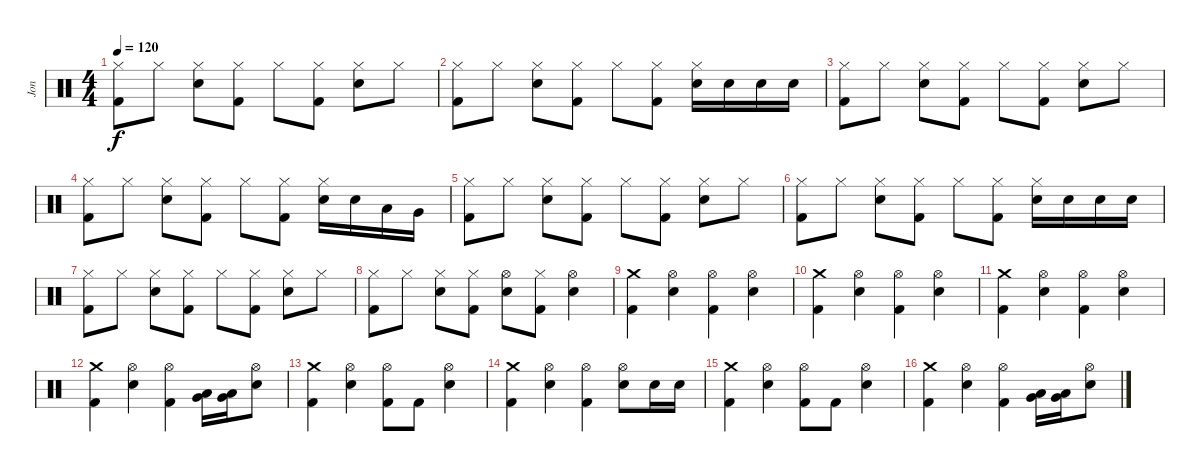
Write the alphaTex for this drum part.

\track ("Jon" "Jon") {instrument percussion}
\staff {score}
\articulation defaults
\ts (4 4)
\tempo 120
\clef neutral
\ks c
("Hi-Hat (closed)" "Kick (hit) 2").8{dy f} "Hi-Hat (closed)".8 ("Hi-Hat (closed)" "Snare (hit) 2").8 ("Hi-Hat (closed)" "Kick (hit) 2").8 "Hi-Hat (closed)".8 ("Hi-Hat (closed)" "Kick (hit) 2").8 ("Hi-Hat (closed)" "Snare (hit) 2").8 "Hi-Hat (closed)".8 |
("Hi-Hat (closed)" "Kick (hit) 2").8 "Hi-Hat (closed)".8 ("Hi-Hat (closed)" "Snare (hit) 2").8 ("Hi-Hat (closed)" "Kick (hit) 2").8 "Hi-Hat (closed)".8 ("Hi-Hat (closed)" "Kick (hit) 2").8 ("Hi-Hat (closed)" "Snare (hit) 2").16 "Snare (hit) 2".16 "Snare (hit) 2".16 "Snare (hit) 2".16 |
("Hi-Hat (closed)" "Kick (hit) 2").8 "Hi-Hat (closed)".8 ("Hi-Hat (closed)" "Snare (hit) 2").8 ("Hi-Hat (closed)" "Kick (hit) 2").8 "Hi-Hat (closed)".8 ("Hi-Hat (closed)" "Kick (hit) 2").8 ("Hi-Hat (closed)" "Snare (hit) 2").8 "Hi-Hat (closed)".8 |
("Hi-Hat (closed)" "Kick (hit) 2").8 "Hi-Hat (closed)".8 ("Hi-Hat (closed)" "Snare (hit) 2").8 ("Hi-Hat (closed)" "Kick (hit) 2").8 "Hi-Hat (closed)".8 ("Hi-Hat (closed)" "Kick (hit) 2").8 ("Hi-Hat (closed)" "Snare (hit) 2").16 "Snare (hit) 2".16 "Low Tom (hit)".16 "Very Low Tom (hit)".16 |
("Hi-Hat (closed)" "Kick (hit) 2").8 "Hi-Hat (closed)".8 ("Hi-Hat (closed)" "Snare (hit) 2").8 ("Hi-Hat (closed)" "Kick (hit) 2").8 "Hi-Hat (closed)".8 ("Hi-Hat (closed)" "Kick (hit) 2").8 ("Hi-Hat (closed)" "Snare (hit) 2").8 "Hi-Hat (closed)".8 |
("Hi-Hat (closed)" "Kick (hit) 2").8 "Hi-Hat (closed)".8 ("Hi-Hat (closed)" "Snare (hit) 2").8 ("Hi-Hat (closed)" "Kick (hit) 2").8 "Hi-Hat (closed)".8 ("Hi-Hat (closed)" "Kick (hit) 2").8 ("Hi-Hat (closed)" "Snare (hit) 2").16 "Snare (hit) 2".16 "Snare (hit) 2".16 "Snare (hit) 2".16 |
("Hi-Hat (closed)" "Kick (hit) 2").8 "Hi-Hat (closed)".8 ("Hi-Hat (closed)" "Snare (hit) 2").8 ("Hi-Hat (closed)" "Kick (hit) 2").8 "Hi-Hat (closed)".8 ("Hi-Hat (closed)" "Kick (hit) 2").8 ("Hi-Hat (closed)" "Snare (hit) 2").8 "Hi-Hat (closed)".8 |
("Hi-Hat (closed)" "Kick (hit) 2").8 "Hi-Hat (closed)".8 ("Hi-Hat (closed)" "Snare (hit) 2").8 ("Hi-Hat (closed)" "Kick (hit) 2").8 ("Hi-Hat (open)" "Snare (hit) 2").8 ("Hi-Hat (closed)" "Kick (hit) 2").8 ("Hi-Hat (open)" "Snare (hit) 2").4 |
("Crash medium (hit)" "Kick (hit) 2").4 ("Hi-Hat (open)" "Snare (hit) 2").4 ("Hi-Hat (open)" "Kick (hit) 2").4 ("Hi-Hat (open)" "Snare (hit) 2").4 |
("Crash medium (hit)" "Kick (hit) 2").4 ("Hi-Hat (open)" "Snare (hit) 2").4 ("Hi-Hat (open)" "Kick (hit) 2").4 ("Hi-Hat (open)" "Snare (hit) 2").4 |
("Crash medium (hit)" "Kick (hit) 2").4 ("Hi-Hat (open)" "Snare (hit) 2").4 ("Hi-Hat (open)" "Kick (hit) 2").4 ("Hi-Hat (open)" "Snare (hit) 2").4 |
("Crash medium (hit)" "Kick (hit) 2").4 ("Hi-Hat (open)" "Snare (hit) 2").4 ("Hi-Hat (open)" "Kick (hit) 2").4 ("Low Tom (hit)" "Very Low Tom (hit)").16 ("Very Low Tom (hit)" "Low Floor Tom (hit)").16 ("Hi-Hat (open)" "Snare (hit) 2").8 |
("Crash medium (hit)" "Kick (hit) 2").4 ("Hi-Hat (open)" "Snare (hit) 2").4 ("Hi-Hat (open)" "Kick (hit) 2").8 "Kick (hit) 2".8 ("Hi-Hat (open)" "Snare (hit) 2").4 |
("Crash medium (hit)" "Kick (hit) 2").4 ("Hi-Hat (open)" "Snare (hit) 2").4 ("Hi-Hat (open)" "Kick (hit) 2").4 ("Hi-Hat (open)" "Snare (hit) 2").8 "Snare (hit) 2".16 "Snare (hit) 2".16 |
("Crash medium (hit)" "Kick (hit) 2").4 ("Hi-Hat (open)" "Snare (hit) 2").4 ("Hi-Hat (open)" "Kick (hit) 2").8 "Kick (hit) 2".8 ("Hi-Hat (open)" "Snare (hit) 2").4 |
("Crash medium (hit)" "Kick (hit) 2").4 ("Hi-Hat (open)" "Snare (hit) 2").4 ("Hi-Hat (open)" "Kick (hit) 2").4 ("Low Tom (hit)" "Very Low Tom (hit)").16 ("Very Low Tom (hit)" "Low Floor Tom (hit)").16 ("Hi-Hat (open)" "Snare (hit) 2").8
